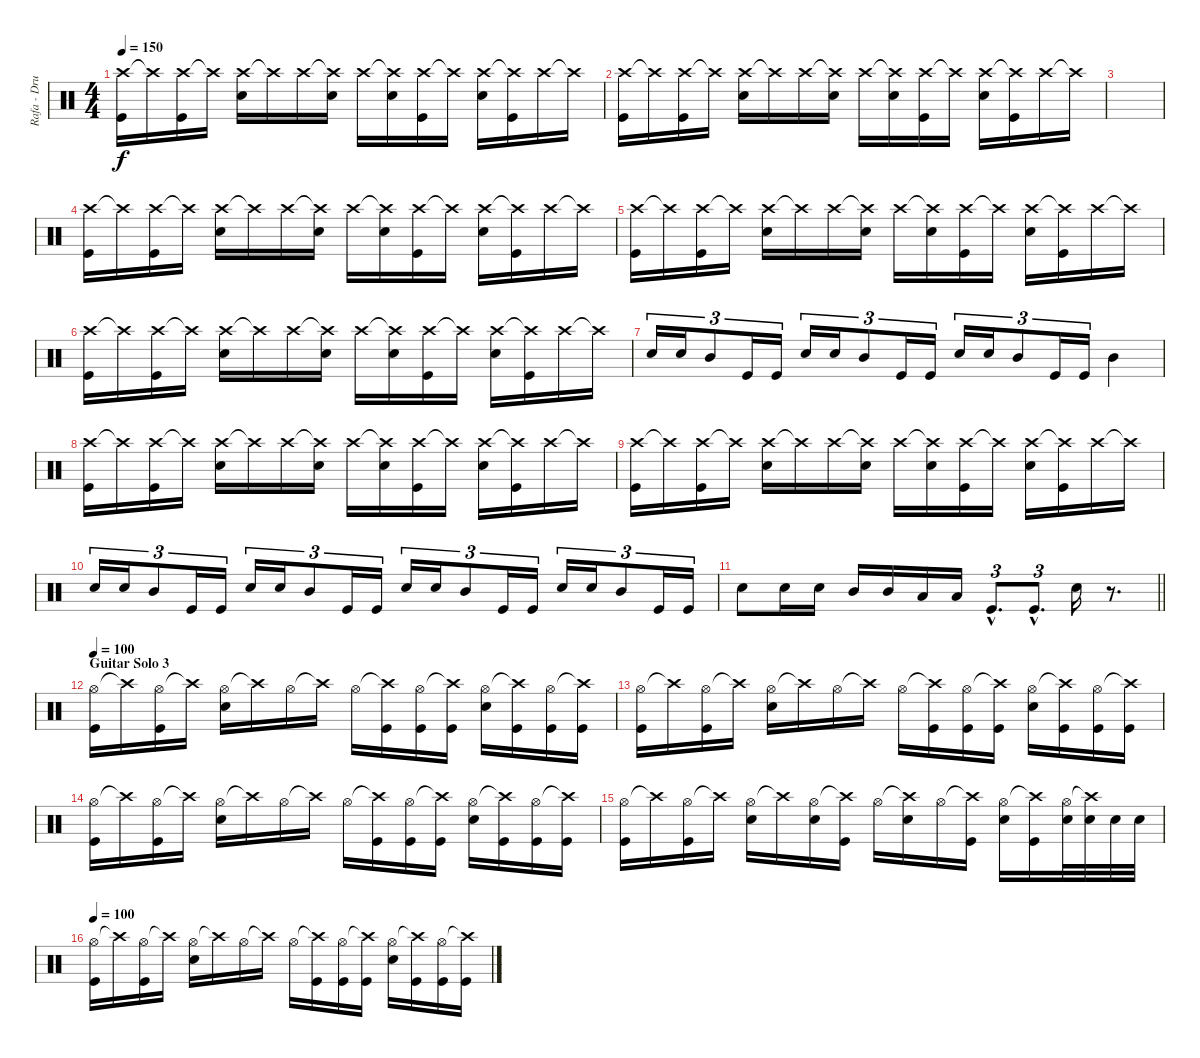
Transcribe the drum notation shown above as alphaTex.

\track ("Rafa - Drums" "Rafa - Dru") {instrument percussion}
\staff {score}
\articulation defaults
\ts (4 4)
\tempo 150
\clef neutral
\ks c
("Crash high (hit)" "Kick (hit)").16{dy f} "Crash high (hit)"{t}.16 ("Crash high (hit)" "Kick (hit)").16 "Crash high (hit)"{t}.16 ("Crash high (hit)" "Electric Snare (hit)").16 "Crash high (hit)"{t}.16 "Crash high (hit)".16 ("Crash high (hit)"{t} "Electric Snare (hit)").16 "Crash high (hit)".16 ("Crash high (hit)"{t} "Electric Snare (hit)").16 ("Crash high (hit)" "Kick (hit)").16 "Crash high (hit)"{t}.16 ("Crash high (hit)" "Electric Snare (hit)").16 ("Crash high (hit)"{t} "Kick (hit)").16 "Crash high (hit)".16 "Crash high (hit)"{t}.16 |
("Crash high (hit)" "Kick (hit)").16 "Crash high (hit)"{t}.16 ("Crash high (hit)" "Kick (hit)").16 "Crash high (hit)"{t}.16 ("Crash high (hit)" "Electric Snare (hit)").16 "Crash high (hit)"{t}.16 "Crash high (hit)".16 ("Crash high (hit)"{t} "Electric Snare (hit)").16 "Crash high (hit)".16 ("Crash high (hit)"{t} "Electric Snare (hit)").16 ("Crash high (hit)" "Kick (hit)").16 "Crash high (hit)"{t}.16 ("Crash high (hit)" "Electric Snare (hit)").16 ("Crash high (hit)"{t} "Kick (hit)").16 "Crash high (hit)".16 "Crash high (hit)"{t}.16 |
|
("Crash high (hit)" "Kick (hit)").16 "Crash high (hit)"{t}.16 ("Crash high (hit)" "Kick (hit)").16 "Crash high (hit)"{t}.16 ("Crash high (hit)" "Electric Snare (hit)").16 "Crash high (hit)"{t}.16 "Crash high (hit)".16 ("Crash high (hit)"{t} "Electric Snare (hit)").16 "Crash high (hit)".16 ("Crash high (hit)"{t} "Electric Snare (hit)").16 ("Crash high (hit)" "Kick (hit)").16 "Crash high (hit)"{t}.16 ("Crash high (hit)" "Electric Snare (hit)").16 ("Crash high (hit)"{t} "Kick (hit)").16 "Crash high (hit)".16 "Crash high (hit)"{t}.16 |
("Crash high (hit)" "Kick (hit)").16 "Crash high (hit)"{t}.16 ("Crash high (hit)" "Kick (hit)").16 "Crash high (hit)"{t}.16 ("Crash high (hit)" "Electric Snare (hit)").16 "Crash high (hit)"{t}.16 "Crash high (hit)".16 ("Crash high (hit)"{t} "Electric Snare (hit)").16 "Crash high (hit)".16 ("Crash high (hit)"{t} "Electric Snare (hit)").16 ("Crash high (hit)" "Kick (hit)").16 "Crash high (hit)"{t}.16 ("Crash high (hit)" "Electric Snare (hit)").16 ("Crash high (hit)"{t} "Kick (hit)").16 "Crash high (hit)".16 "Crash high (hit)"{t}.16 |
("Crash high (hit)" "Kick (hit)").16 "Crash high (hit)"{t}.16 ("Crash high (hit)" "Kick (hit)").16 "Crash high (hit)"{t}.16 ("Crash high (hit)" "Electric Snare (hit)").16 "Crash high (hit)"{t}.16 "Crash high (hit)".16 ("Crash high (hit)"{t} "Electric Snare (hit)").16 "Crash high (hit)".16 ("Crash high (hit)"{t} "Electric Snare (hit)").16 ("Crash high (hit)" "Kick (hit)").16 "Crash high (hit)"{t}.16 ("Crash high (hit)" "Electric Snare (hit)").16 ("Crash high (hit)"{t} "Kick (hit)").16 "Crash high (hit)".16 "Crash high (hit)"{t}.16 |
"Electric Snare (hit)".16{tu (3 2)} "Electric Snare (hit)".16{tu (3 2)} "Mid Tom (hit)".8{tu (3 2)} "Kick (hit)".16{tu (3 2)} "Kick (hit)".16{tu (3 2)} "Electric Snare (hit)".16{tu (3 2)} "Electric Snare (hit)".16{tu (3 2)} "Mid Tom (hit)".8{tu (3 2)} "Kick (hit)".16{tu (3 2)} "Kick (hit)".16{tu (3 2)} "Electric Snare (hit)".16{tu (3 2)} "Electric Snare (hit)".16{tu (3 2)} "Mid Tom (hit)".8{tu (3 2)} "Kick (hit)".16{tu (3 2)} "Kick (hit)".16{tu (3 2)} "Mid Tom (hit)".4 |
("Crash high (hit)" "Kick (hit)").16 "Crash high (hit)"{t}.16 ("Crash high (hit)" "Kick (hit)").16 "Crash high (hit)"{t}.16 ("Crash high (hit)" "Electric Snare (hit)").16 "Crash high (hit)"{t}.16 "Crash high (hit)".16 ("Crash high (hit)"{t} "Electric Snare (hit)").16 "Crash high (hit)".16 ("Crash high (hit)"{t} "Electric Snare (hit)").16 ("Crash high (hit)" "Kick (hit)").16 "Crash high (hit)"{t}.16 ("Crash high (hit)" "Electric Snare (hit)").16 ("Crash high (hit)"{t} "Kick (hit)").16 "Crash high (hit)".16 "Crash high (hit)"{t}.16 |
("Crash high (hit)" "Kick (hit)").16 "Crash high (hit)"{t}.16 ("Crash high (hit)" "Kick (hit)").16 "Crash high (hit)"{t}.16 ("Crash high (hit)" "Electric Snare (hit)").16 "Crash high (hit)"{t}.16 "Crash high (hit)".16 ("Crash high (hit)"{t} "Electric Snare (hit)").16 "Crash high (hit)".16 ("Crash high (hit)"{t} "Electric Snare (hit)").16 ("Crash high (hit)" "Kick (hit)").16 "Crash high (hit)"{t}.16 ("Crash high (hit)" "Electric Snare (hit)").16 ("Crash high (hit)"{t} "Kick (hit)").16 "Crash high (hit)".16 "Crash high (hit)"{t}.16 |
"Electric Snare (hit)".16{tu (3 2)} "Electric Snare (hit)".16{tu (3 2)} "Mid Tom (hit)".8{tu (3 2)} "Kick (hit)".16{tu (3 2)} "Kick (hit)".16{tu (3 2)} "Electric Snare (hit)".16{tu (3 2)} "Electric Snare (hit)".16{tu (3 2)} "Mid Tom (hit)".8{tu (3 2)} "Kick (hit)".16{tu (3 2)} "Kick (hit)".16{tu (3 2)} "Electric Snare (hit)".16{tu (3 2)} "Electric Snare (hit)".16{tu (3 2)} "Mid Tom (hit)".8{tu (3 2)} "Kick (hit)".16{tu (3 2)} "Kick (hit)".16{tu (3 2)} "Electric Snare (hit)".16{tu (3 2)} "Electric Snare (hit)".16{tu (3 2)} "Mid Tom (hit)".8{tu (3 2)} "Kick (hit)".16{tu (3 2)} "Kick (hit)".16{tu (3 2)} |
\barLineRight lightlight "Electric Snare (hit)".8 "Electric Snare (hit)".16 "Electric Snare (hit)".16 "Mid Tom (hit)".16 "Mid Tom (hit)".16 "Low Tom (hit)".16 "Low Tom (hit)".16 "Kick (hit)"{hac}.8{d tu (3 2)} "Kick (hit)"{hac}.8{d tu (3 2)} "Electric Snare (hit)".16
r.8{d} |
\section ("" "Guitar Solo 3")
\tempo 100
("Hi-Hat (open)" "Kick (hit)").16 "Crash high (hit)"{t}.16 ("Hi-Hat (open)" "Kick (hit)").16 "Crash high (hit)"{t}.16 ("Hi-Hat (open)" "Electric Snare (hit)").16 "Crash high (hit)"{t}.16 "Hi-Hat (open)".16 "Crash high (hit)"{t}.16 "Hi-Hat (open)".16 ("Crash high (hit)"{t} "Kick (hit)").16 ("Hi-Hat (open)" "Kick (hit)").16 ("Crash high (hit)"{t} "Kick (hit)").16 ("Hi-Hat (open)" "Electric Snare (hit)").16 ("Crash high (hit)"{t} "Kick (hit)").16 ("Hi-Hat (open)" "Kick (hit)").16 ("Crash high (hit)"{t} "Kick (hit)").16 |
("Hi-Hat (open)" "Kick (hit)").16 "Crash high (hit)"{t}.16 ("Hi-Hat (open)" "Kick (hit)").16 "Crash high (hit)"{t}.16 ("Hi-Hat (open)" "Electric Snare (hit)").16 "Crash high (hit)"{t}.16 "Hi-Hat (open)".16 "Crash high (hit)"{t}.16 "Hi-Hat (open)".16 ("Crash high (hit)"{t} "Kick (hit)").16 ("Hi-Hat (open)" "Kick (hit)").16 ("Crash high (hit)"{t} "Kick (hit)").16 ("Hi-Hat (open)" "Electric Snare (hit)").16 ("Crash high (hit)"{t} "Kick (hit)").16 ("Hi-Hat (open)" "Kick (hit)").16 ("Crash high (hit)"{t} "Kick (hit)").16 |
("Hi-Hat (open)" "Kick (hit)").16 "Crash high (hit)"{t}.16 ("Hi-Hat (open)" "Kick (hit)").16 "Crash high (hit)"{t}.16 ("Hi-Hat (open)" "Electric Snare (hit)").16 "Crash high (hit)"{t}.16 "Hi-Hat (open)".16 "Crash high (hit)"{t}.16 "Hi-Hat (open)".16 ("Crash high (hit)"{t} "Kick (hit)").16 ("Hi-Hat (open)" "Kick (hit)").16 ("Crash high (hit)"{t} "Kick (hit)").16 ("Hi-Hat (open)" "Electric Snare (hit)").16 ("Crash high (hit)"{t} "Kick (hit)").16 ("Hi-Hat (open)" "Kick (hit)").16 ("Crash high (hit)"{t} "Kick (hit)").16 |
("Hi-Hat (open)" "Kick (hit)").16 "Crash high (hit)"{t}.16 ("Hi-Hat (open)" "Kick (hit)").16 "Crash high (hit)"{t}.16 ("Hi-Hat (open)" "Electric Snare (hit)").16 "Crash high (hit)"{t}.16 ("Hi-Hat (open)" "Electric Snare (hit)").16 ("Crash high (hit)"{t} "Kick (hit)").16 "Hi-Hat (open)".16 ("Crash high (hit)"{t} "Electric Snare (hit)").16 "Hi-Hat (open)".16 ("Crash high (hit)"{t} "Kick (hit)").16 ("Hi-Hat (open)" "Electric Snare (hit)").16 ("Crash high (hit)"{t} "Kick (hit)").16 ("Hi-Hat (open)" "Electric Snare (hit)").32 ("Crash high (hit)"{t} "Electric Snare (hit)").32 "Electric Snare (hit)".32 "Electric Snare (hit)".32 |
\tempo 100
("Hi-Hat (open)" "Kick (hit)").16 "Crash high (hit)"{t}.16 ("Hi-Hat (open)" "Kick (hit)").16 "Crash high (hit)"{t}.16 ("Hi-Hat (open)" "Electric Snare (hit)").16 "Crash high (hit)"{t}.16 "Hi-Hat (open)".16 "Crash high (hit)"{t}.16 "Hi-Hat (open)".16 ("Crash high (hit)"{t} "Kick (hit)").16 ("Hi-Hat (open)" "Kick (hit)").16 ("Crash high (hit)"{t} "Kick (hit)").16 ("Hi-Hat (open)" "Electric Snare (hit)").16 ("Crash high (hit)"{t} "Kick (hit)").16 ("Hi-Hat (open)" "Kick (hit)").16 ("Crash high (hit)"{t} "Kick (hit)").16
